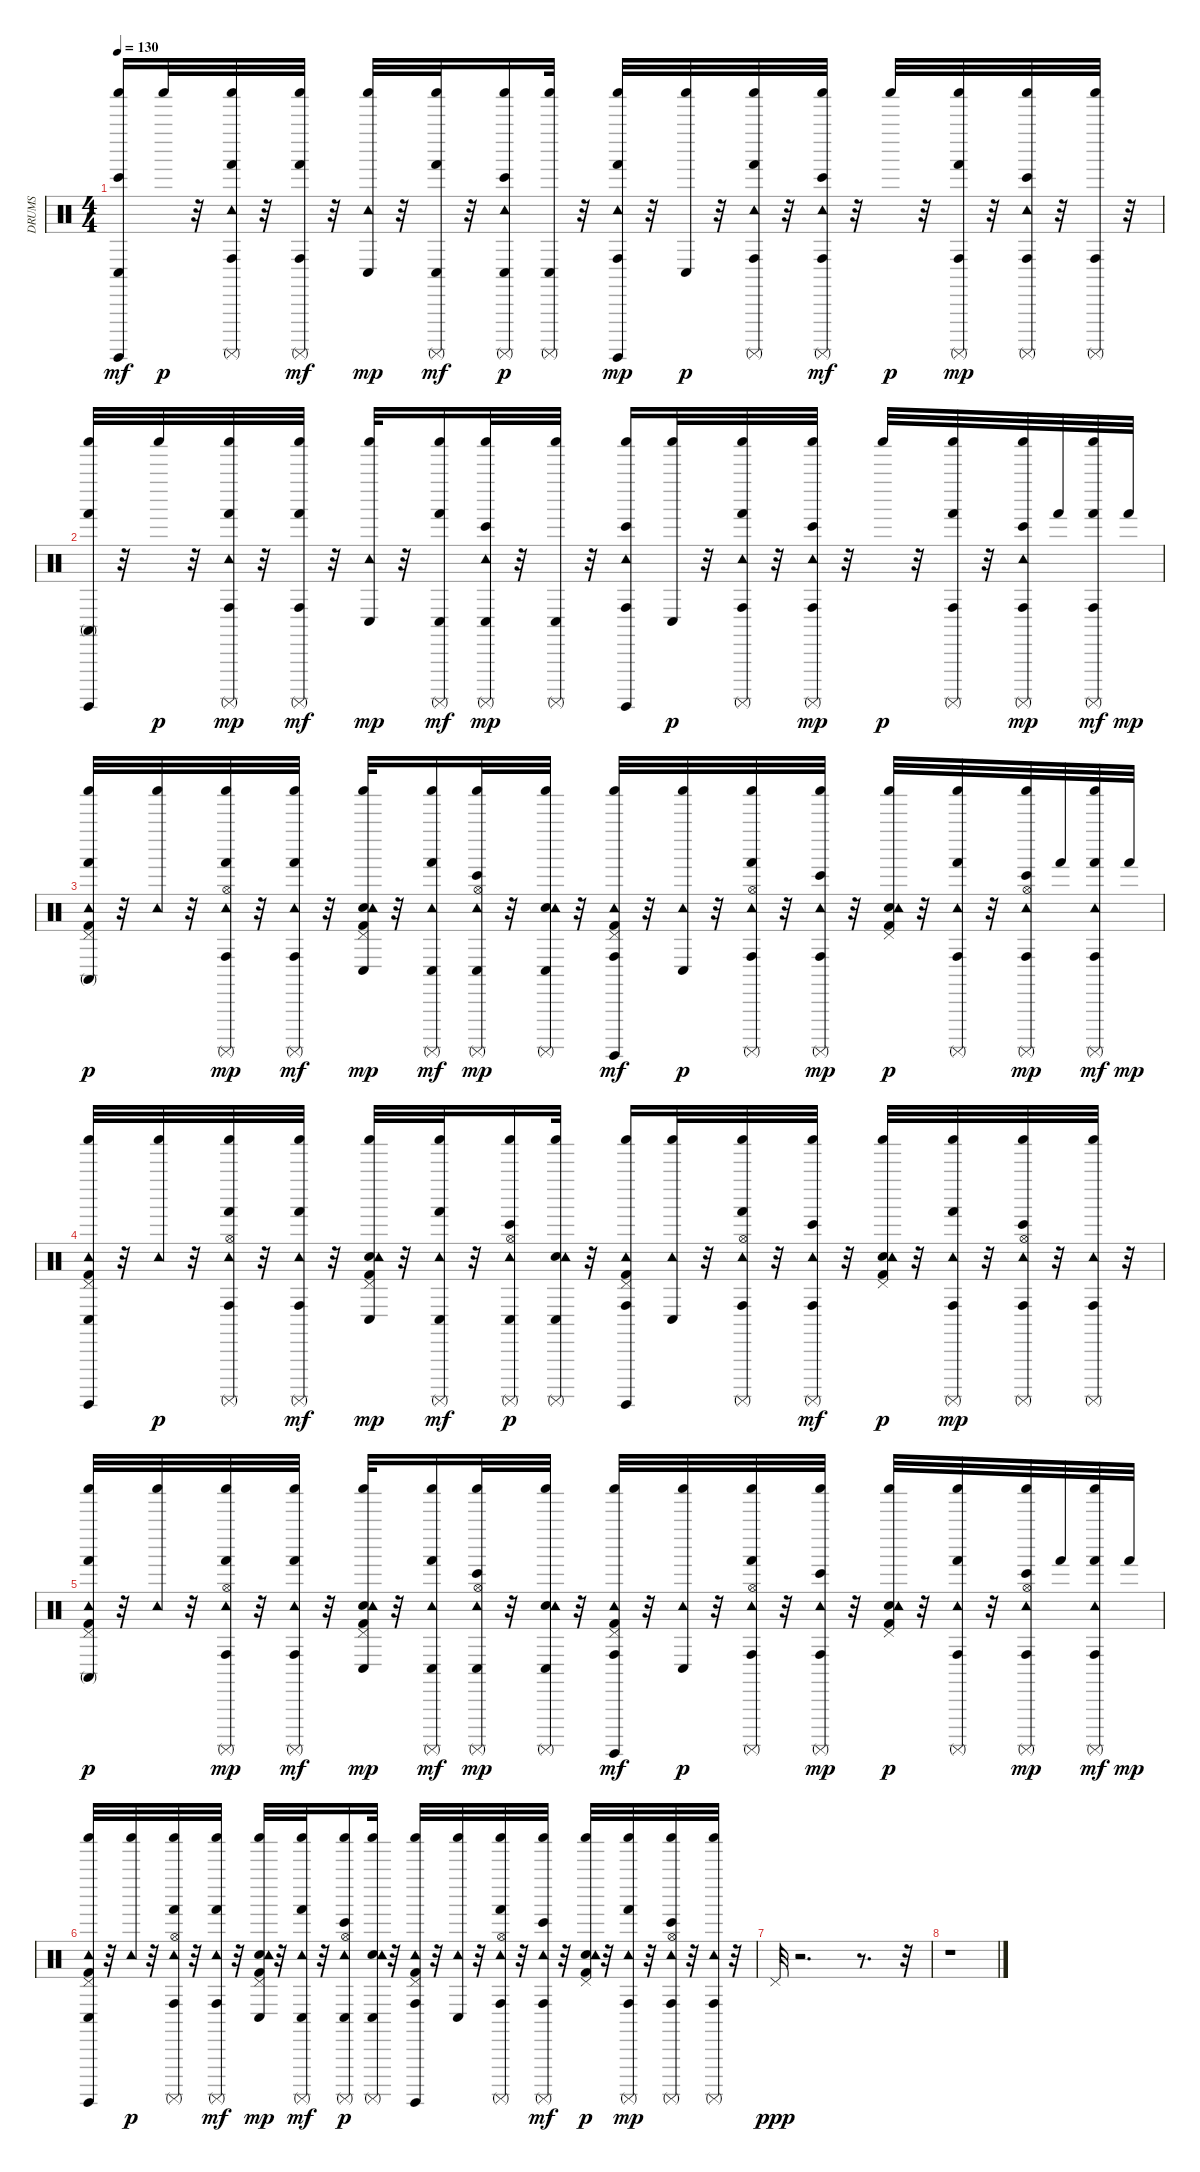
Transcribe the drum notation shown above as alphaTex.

\track ("DRUMS" "DRUMS") {instrument percussion}
\staff {score}
\articulation defaults
\ts (4 4)
\tempo 130
\clef neutral
\ks c
("Shaker (hit)" "Conga low (hit)" "Surdo (hit)" "Bongo High (hit)").16{dy mf} "Shaker (hit)".32{dy p} r.32 ("Tambourine (hit)" "Shaker (hit)" "Conga high (hit)" "Hand (hit)" "Surdo (mute)").32 r.32 ("Conga high (hit)" "Hand (hit)" "Shaker (hit)" "Surdo (mute)").32{dy mf} r.32 ("Tambourine (hit)" "Shaker (hit)" "Conga low (hit)").32{dy mp} r.32 ("Shaker (hit)" "Hand (hit)" "Surdo (mute)" "Conga low (hit)").32{dy mf} r.32 ("Tambourine (hit)" "Shaker (hit)" "Surdo (mute)" "Conga low (hit)" "Bongo High (hit)").16{dy p} ("Shaker (hit)" "Surdo (mute)" "Conga low (hit)").32 r.32 ("Tambourine (hit)" "Shaker (hit)" "Surdo (hit)" "Conga high (hit)" "Hand (hit)").32{dy mp} r.32 ("Shaker (hit)" "Conga low (hit)").32{dy p} r.32 ("Tambourine (hit)" "Shaker (hit)" "Conga high (hit)" "Hand (hit)" "Surdo (mute)").32 r.32 ("Conga high (hit)" "Bongo High (hit)" "Tambourine (hit)" "Shaker (hit)" "Surdo (mute)").32{dy mf} r.32 "Shaker (hit)".32{dy p} r.32 ("Hand (hit)" "Shaker (hit)" "Surdo (mute)" "Conga high (hit)").32{dy mp} r.32 ("Tambourine (hit)" "Shaker (hit)" "Surdo (mute)" "Conga high (hit)" "Bongo High (hit)").32 r.32 ("Shaker (hit)" "Conga high (hit)" "Surdo (mute)").32 r.32 |
("Shaker (hit)" "Conga high (mute)" "Hand (hit)" "Surdo (hit)").32 r.32 "Shaker (hit)".32{dy p} r.32 ("Tambourine (hit)" "Shaker (hit)" "Hand (hit)" "Surdo (mute)" "Conga high (hit)").32{dy mp} r.32 ("Shaker (hit)" "Hand (hit)" "Surdo (mute)" "Conga high (hit)").32{dy mf} r.32 ("Tambourine (hit)" "Shaker (hit)" "Conga low (hit)").32{dy mp} r.32 ("Shaker (hit)" "Hand (hit)" "Surdo (mute)" "Conga low (hit)").16{dy mf} ("Tambourine (hit)" "Shaker (hit)" "Surdo (mute)" "Bongo High (hit)" "Conga low (hit)").32{dy mp} r.32 ("Shaker (hit)" "Conga low (hit)" "Surdo (mute)").32 r.32 ("Tambourine (hit)" "Shaker (hit)" "Conga high (hit)" "Surdo (hit)" "Bongo High (hit)").16 ("Shaker (hit)" "Conga low (hit)").32{dy p} r.32 ("Conga high (hit)" "Tambourine (hit)" "Shaker (hit)" "Hand (hit)" "Surdo (mute)").32 r.32 ("Conga high (hit)" "Tambourine (hit)" "Shaker (hit)" "Surdo (mute)" "Bongo High (hit)").32{dy mp} r.32 "Shaker (hit)".32{dy p} r.32 ("Shaker (hit)" "Surdo (mute)" "Hand (hit)" "Conga high (hit)").32 r.32 ("Tambourine (hit)" "Shaker (hit)" "Surdo (mute)" "Bongo High (hit)" "Conga high (hit)").32{dy mp} "Hand (hit)".32 ("Shaker (hit)" "Hand (hit)" "Surdo (mute)" "Conga high (hit)").32{dy mf} "Hand (hit)".32{dy mp} |
("Kick (hit) 2" "Pedal Hi-Hat (hit)" "Tambourine (hit)" "Shaker (hit)" "Conga high (mute)" "Hand (hit)").32{dy p} r.32 ("Tambourine (hit)" "Shaker (hit)").32 r.32 ("Hi-Hat (open)" "Tambourine (hit)" "Shaker (hit)" "Hand (hit)" "Surdo (mute)" "Conga high (hit)").32{dy mp} r.32 ("Tambourine (hit)" "Shaker (hit)" "Hand (hit)" "Surdo (mute)" "Conga high (hit)").32{dy mf} r.32 ("Kick (hit) 2" "Electric Snare (hit)" "Pedal Hi-Hat (hit)" "Tambourine (hit)" "Shaker (hit)" "Conga low (hit)").32{dy mp} r.32 ("Tambourine (hit)" "Shaker (hit)" "Hand (hit)" "Surdo (mute)" "Conga low (hit)").16{dy mf} ("Hi-Hat (open)" "Tambourine (hit)" "Shaker (hit)" "Surdo (mute)" "Bongo High (hit)" "Conga low (hit)").32{dy mp} r.32 ("Electric Snare (hit)" "Tambourine (hit)" "Shaker (hit)" "Conga low (hit)" "Surdo (mute)").32 r.32 ("Kick (hit) 2" "Pedal Hi-Hat (hit)" "Tambourine (hit)" "Shaker (hit)" "Conga high (hit)" "Surdo (hit)").32{dy mf} r.32 ("Tambourine (hit)" "Shaker (hit)" "Conga low (hit)").32{dy p} r.32 ("Conga high (hit)" "Hi-Hat (open)" "Tambourine (hit)" "Shaker (hit)" "Hand (hit)" "Surdo (mute)").32 r.32 ("Conga high (hit)" "Tambourine (hit)" "Shaker (hit)" "Surdo (mute)" "Bongo High (hit)").32{dy mp} r.32 ("Kick (hit) 2" "Electric Snare (hit)" "Pedal Hi-Hat (hit)" "Tambourine (hit)" "Shaker (hit)").32{dy p} r.32 ("Tambourine (hit)" "Shaker (hit)" "Surdo (mute)" "Hand (hit)" "Conga high (hit)").32 r.32 ("Hi-Hat (open)" "Tambourine (hit)" "Shaker (hit)" "Surdo (mute)" "Bongo High (hit)" "Conga high (hit)").32{dy mp} "Hand (hit)".32 ("Tambourine (hit)" "Shaker (hit)" "Hand (hit)" "Surdo (mute)" "Conga high (hit)").32{dy mf} "Hand (hit)".32{dy mp} |
("Kick (hit) 2" "Pedal Hi-Hat (hit)" "Tambourine (hit)" "Shaker (hit)" "Conga low (hit)" "Surdo (hit)").32 r.32 ("Tambourine (hit)" "Shaker (hit)").32{dy p} r.32 ("Hi-Hat (open)" "Tambourine (hit)" "Shaker (hit)" "Conga high (hit)" "Hand (hit)" "Surdo (mute)").32 r.32 ("Conga high (hit)" "Hand (hit)" "Tambourine (hit)" "Shaker (hit)" "Surdo (mute)").32{dy mf} r.32 ("Kick (hit) 2" "Electric Snare (hit)" "Pedal Hi-Hat (hit)" "Tambourine (hit)" "Shaker (hit)" "Conga low (hit)").32{dy mp} r.32 ("Tambourine (hit)" "Shaker (hit)" "Hand (hit)" "Surdo (mute)" "Conga low (hit)").32{dy mf} r.32 ("Hi-Hat (open)" "Tambourine (hit)" "Shaker (hit)" "Surdo (mute)" "Conga low (hit)" "Bongo High (hit)").16{dy p} ("Electric Snare (hit)" "Tambourine (hit)" "Shaker (hit)" "Surdo (mute)" "Conga low (hit)").32 r.32 ("Kick (hit) 2" "Pedal Hi-Hat (hit)" "Tambourine (hit)" "Shaker (hit)" "Surdo (hit)" "Conga high (hit)").16 ("Tambourine (hit)" "Shaker (hit)" "Conga low (hit)").32 r.32 ("Hi-Hat (open)" "Tambourine (hit)" "Shaker (hit)" "Conga high (hit)" "Hand (hit)" "Surdo (mute)").32 r.32 ("Conga high (hit)" "Bongo High (hit)" "Tambourine (hit)" "Shaker (hit)" "Surdo (mute)").32{dy mf} r.32 ("Kick (hit) 2" "Electric Snare (hit)" "Pedal Hi-Hat (hit)" "Tambourine (hit)" "Shaker (hit)").32{dy p} r.32 ("Hand (hit)" "Tambourine (hit)" "Shaker (hit)" "Surdo (mute)" "Conga high (hit)").32{dy mp} r.32 ("Hi-Hat (open)" "Tambourine (hit)" "Shaker (hit)" "Surdo (mute)" "Conga high (hit)" "Bongo High (hit)").32 r.32 ("Tambourine (hit)" "Shaker (hit)" "Conga high (hit)" "Surdo (mute)").32 r.32 |
("Kick (hit) 2" "Pedal Hi-Hat (hit)" "Tambourine (hit)" "Shaker (hit)" "Conga high (mute)" "Hand (hit)").32{dy p} r.32 ("Tambourine (hit)" "Shaker (hit)").32 r.32 ("Hi-Hat (open)" "Tambourine (hit)" "Shaker (hit)" "Hand (hit)" "Surdo (mute)" "Conga high (hit)").32{dy mp} r.32 ("Tambourine (hit)" "Shaker (hit)" "Hand (hit)" "Surdo (mute)" "Conga high (hit)").32{dy mf} r.32 ("Kick (hit) 2" "Electric Snare (hit)" "Pedal Hi-Hat (hit)" "Tambourine (hit)" "Shaker (hit)" "Conga low (hit)").32{dy mp} r.32 ("Tambourine (hit)" "Shaker (hit)" "Hand (hit)" "Surdo (mute)" "Conga low (hit)").16{dy mf} ("Hi-Hat (open)" "Tambourine (hit)" "Shaker (hit)" "Surdo (mute)" "Bongo High (hit)" "Conga low (hit)").32{dy mp} r.32 ("Electric Snare (hit)" "Tambourine (hit)" "Shaker (hit)" "Conga low (hit)" "Surdo (mute)").32 r.32 ("Kick (hit) 2" "Pedal Hi-Hat (hit)" "Tambourine (hit)" "Shaker (hit)" "Conga high (hit)" "Surdo (hit)").32{dy mf} r.32 ("Tambourine (hit)" "Shaker (hit)" "Conga low (hit)").32{dy p} r.32 ("Conga high (hit)" "Hi-Hat (open)" "Tambourine (hit)" "Shaker (hit)" "Hand (hit)" "Surdo (mute)").32 r.32 ("Conga high (hit)" "Tambourine (hit)" "Shaker (hit)" "Surdo (mute)" "Bongo High (hit)").32{dy mp} r.32 ("Kick (hit) 2" "Electric Snare (hit)" "Pedal Hi-Hat (hit)" "Tambourine (hit)" "Shaker (hit)").32{dy p} r.32 ("Tambourine (hit)" "Shaker (hit)" "Surdo (mute)" "Hand (hit)" "Conga high (hit)").32 r.32 ("Hi-Hat (open)" "Tambourine (hit)" "Shaker (hit)" "Surdo (mute)" "Bongo High (hit)" "Conga high (hit)").32{dy mp} "Hand (hit)".32 ("Tambourine (hit)" "Shaker (hit)" "Hand (hit)" "Surdo (mute)" "Conga high (hit)").32{dy mf} "Hand (hit)".32{dy mp} |
("Kick (hit) 2" "Pedal Hi-Hat (hit)" "Tambourine (hit)" "Shaker (hit)" "Conga low (hit)" "Surdo (hit)").32 r.32 ("Tambourine (hit)" "Shaker (hit)").32{dy p} r.32 ("Hi-Hat (open)" "Tambourine (hit)" "Shaker (hit)" "Conga high (hit)" "Hand (hit)" "Surdo (mute)").32 r.32 ("Conga high (hit)" "Hand (hit)" "Tambourine (hit)" "Shaker (hit)" "Surdo (mute)").32{dy mf} r.32 ("Kick (hit) 2" "Electric Snare (hit)" "Pedal Hi-Hat (hit)" "Tambourine (hit)" "Shaker (hit)" "Conga low (hit)").32{dy mp} r.32 ("Tambourine (hit)" "Shaker (hit)" "Hand (hit)" "Surdo (mute)" "Conga low (hit)").32{dy mf} r.32 ("Hi-Hat (open)" "Tambourine (hit)" "Shaker (hit)" "Surdo (mute)" "Conga low (hit)" "Bongo High (hit)").16{dy p} ("Electric Snare (hit)" "Tambourine (hit)" "Shaker (hit)" "Surdo (mute)" "Conga low (hit)").32 r.32 ("Kick (hit) 2" "Pedal Hi-Hat (hit)" "Tambourine (hit)" "Shaker (hit)" "Surdo (hit)" "Conga high (hit)").32 r.32 ("Tambourine (hit)" "Shaker (hit)" "Conga low (hit)").32 r.32 ("Hi-Hat (open)" "Tambourine (hit)" "Shaker (hit)" "Conga high (hit)" "Hand (hit)" "Surdo (mute)").32 r.32 ("Conga high (hit)" "Bongo High (hit)" "Tambourine (hit)" "Shaker (hit)" "Surdo (mute)").32{dy mf} r.32 ("Kick (hit) 2" "Electric Snare (hit)" "Pedal Hi-Hat (hit)" "Tambourine (hit)" "Shaker (hit)").32{dy p} r.32 ("Hand (hit)" "Tambourine (hit)" "Shaker (hit)" "Surdo (mute)" "Conga high (hit)").32{dy mp} r.32 ("Hi-Hat (open)" "Tambourine (hit)" "Shaker (hit)" "Surdo (mute)" "Conga high (hit)" "Bongo High (hit)").32 r.32 ("Tambourine (hit)" "Shaker (hit)" "Conga high (hit)" "Surdo (mute)").32 r.32 |
"Pedal Hi-Hat (hit)".32{dy ppp} r.2{d} r.8{d} r.32 |
r.1
